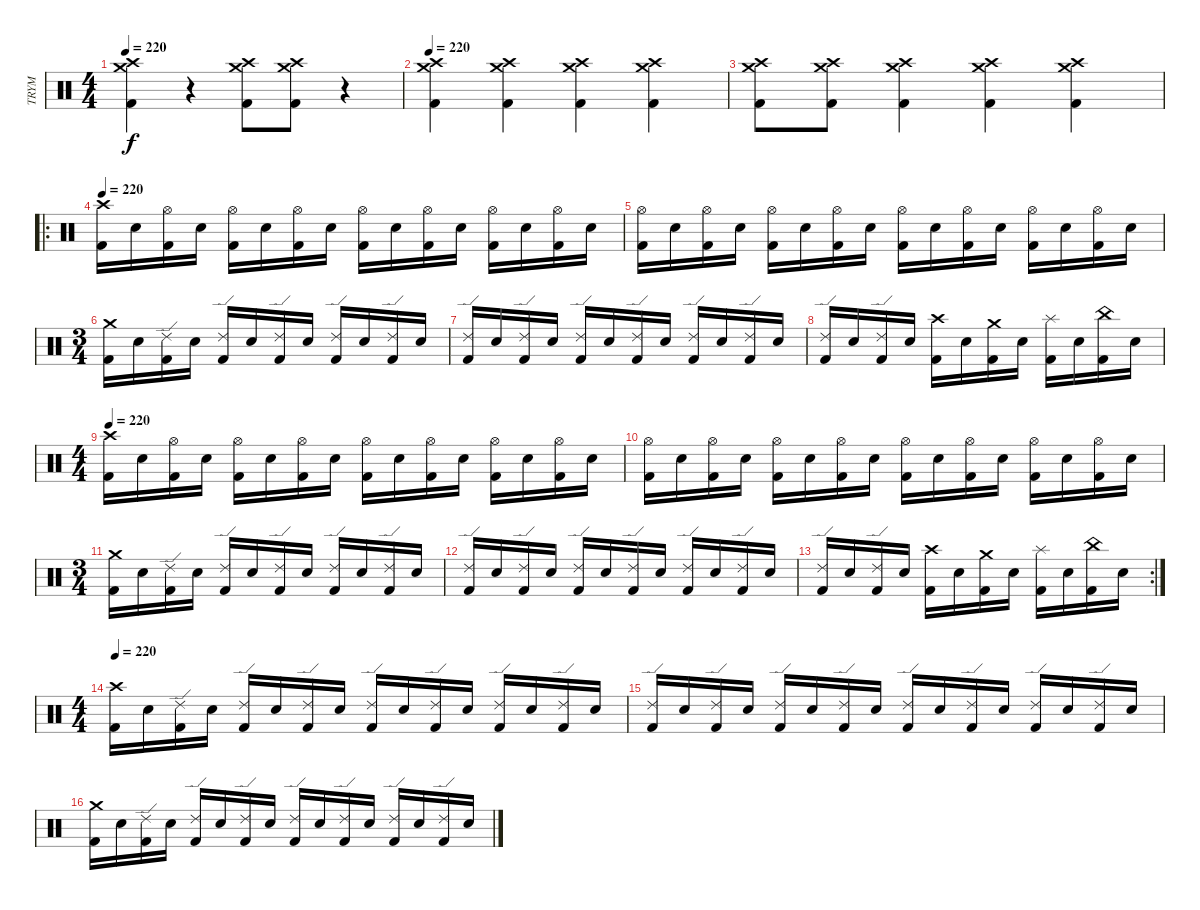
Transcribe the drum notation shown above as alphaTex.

\track ("TRYM" "TRYM") {instrument percussion}
\staff {score}
\articulation defaults
\ts (4 4)
\tempo 220
\clef neutral
\ks c
("Kick (hit) 2" "Crash medium (hit)" "Crash high (hit)").4{dy f} r.4 ("Kick (hit) 2" "Crash medium (hit)" "Crash high (hit)").8 ("Kick (hit) 2" "Crash medium (hit)" "Crash high (hit)").8 r.4 |
\tempo 220
("Kick (hit) 2" "Crash medium (hit)" "Crash high (hit)").4 ("Kick (hit) 2" "Crash medium (hit)" "Crash high (hit)").4 ("Kick (hit) 2" "Crash medium (hit)" "Crash high (hit)").4 ("Kick (hit) 2" "Crash medium (hit)" "Crash high (hit)").4 |
("Kick (hit) 2" "Crash medium (hit)" "Crash high (hit)").8 ("Kick (hit) 2" "Crash medium (hit)" "Crash high (hit)").8 ("Kick (hit) 2" "Crash medium (hit)" "Crash high (hit)").4 ("Kick (hit) 2" "Crash medium (hit)" "Crash high (hit)").4 ("Kick (hit) 2" "Crash medium (hit)" "Crash high (hit)").4 |
\ro
\tempo 220
("Kick (hit) 2" "Crash high (hit)").16 "Electric Snare (hit)".16 ("Kick (hit) 2" "Hi-Hat (open)").16 "Electric Snare (hit)".16 ("Kick (hit) 2" "Hi-Hat (open)").16 "Electric Snare (hit)".16 ("Kick (hit) 2" "Hi-Hat (open)").16 "Electric Snare (hit)".16 ("Kick (hit) 2" "Hi-Hat (open)").16 "Electric Snare (hit)".16 ("Kick (hit) 2" "Hi-Hat (open)").16 "Electric Snare (hit)".16 ("Kick (hit) 2" "Hi-Hat (open)").16 "Electric Snare (hit)".16 ("Kick (hit) 2" "Hi-Hat (open)").16 "Electric Snare (hit)".16 |
("Kick (hit) 2" "Hi-Hat (open)").16 "Electric Snare (hit)".16 ("Kick (hit) 2" "Hi-Hat (open)").16 "Electric Snare (hit)".16 ("Kick (hit) 2" "Hi-Hat (open)").16 "Electric Snare (hit)".16 ("Kick (hit) 2" "Hi-Hat (open)").16 "Electric Snare (hit)".16 ("Kick (hit) 2" "Hi-Hat (open)").16 "Electric Snare (hit)".16 ("Kick (hit) 2" "Hi-Hat (open)").16 "Electric Snare (hit)".16 ("Kick (hit) 2" "Hi-Hat (open)").16 "Electric Snare (hit)".16 ("Kick (hit) 2" "Hi-Hat (open)").16 "Electric Snare (hit)".16 |
\ts (3 4)
("Kick (hit) 2" "Crash medium (hit)").16 "Electric Snare (hit)".16 ("Kick (hit) 2" "Ride (edge) 2").16 "Electric Snare (hit)".16 ("Kick (hit) 2" "Ride (edge) 2").16 "Electric Snare (hit)".16 ("Kick (hit) 2" "Ride (edge) 2").16 "Electric Snare (hit)".16 ("Kick (hit) 2" "Ride (edge) 2").16 "Electric Snare (hit)".16 ("Kick (hit) 2" "Ride (edge) 2").16 "Electric Snare (hit)".16 |
("Kick (hit) 2" "Ride (edge) 2").16 "Electric Snare (hit)".16 ("Kick (hit) 2" "Ride (edge) 2").16 "Electric Snare (hit)".16 ("Kick (hit) 2" "Ride (edge) 2").16 "Electric Snare (hit)".16 ("Kick (hit) 2" "Ride (edge) 2").16 "Electric Snare (hit)".16 ("Kick (hit) 2" "Ride (edge) 2").16 "Electric Snare (hit)".16 ("Kick (hit) 2" "Ride (edge) 2").16 "Electric Snare (hit)".16 |
("Kick (hit) 2" "Ride (edge) 2").16 "Electric Snare (hit)".16 ("Kick (hit) 2" "Ride (edge) 2").16 "Electric Snare (hit)".16 ("Kick (hit) 2" "Crash high (hit)").16 "Electric Snare (hit)".16 ("Kick (hit) 2" "Crash medium (hit)").16 "Electric Snare (hit)".16 ("Kick (hit) 2" "Splash (hit)").16 "Electric Snare (hit)".16 ("Kick (hit) 2" "China (hit)").16 "Electric Snare (hit)".16 |
\ts (4 4)
\tempo 220
("Kick (hit) 2" "Crash high (hit)").16 "Electric Snare (hit)".16 ("Kick (hit) 2" "Hi-Hat (open)").16 "Electric Snare (hit)".16 ("Kick (hit) 2" "Hi-Hat (open)").16 "Electric Snare (hit)".16 ("Kick (hit) 2" "Hi-Hat (open)").16 "Electric Snare (hit)".16 ("Kick (hit) 2" "Hi-Hat (open)").16 "Electric Snare (hit)".16 ("Kick (hit) 2" "Hi-Hat (open)").16 "Electric Snare (hit)".16 ("Kick (hit) 2" "Hi-Hat (open)").16 "Electric Snare (hit)".16 ("Kick (hit) 2" "Hi-Hat (open)").16 "Electric Snare (hit)".16 |
("Kick (hit) 2" "Hi-Hat (open)").16 "Electric Snare (hit)".16 ("Kick (hit) 2" "Hi-Hat (open)").16 "Electric Snare (hit)".16 ("Kick (hit) 2" "Hi-Hat (open)").16 "Electric Snare (hit)".16 ("Kick (hit) 2" "Hi-Hat (open)").16 "Electric Snare (hit)".16 ("Kick (hit) 2" "Hi-Hat (open)").16 "Electric Snare (hit)".16 ("Kick (hit) 2" "Hi-Hat (open)").16 "Electric Snare (hit)".16 ("Kick (hit) 2" "Hi-Hat (open)").16 "Electric Snare (hit)".16 ("Kick (hit) 2" "Hi-Hat (open)").16 "Electric Snare (hit)".16 |
\ts (3 4)
("Kick (hit) 2" "Crash medium (hit)").16 "Electric Snare (hit)".16 ("Kick (hit) 2" "Ride (edge) 2").16 "Electric Snare (hit)".16 ("Kick (hit) 2" "Ride (edge) 2").16 "Electric Snare (hit)".16 ("Kick (hit) 2" "Ride (edge) 2").16 "Electric Snare (hit)".16 ("Kick (hit) 2" "Ride (edge) 2").16 "Electric Snare (hit)".16 ("Kick (hit) 2" "Ride (edge) 2").16 "Electric Snare (hit)".16 |
("Kick (hit) 2" "Ride (edge) 2").16 "Electric Snare (hit)".16 ("Kick (hit) 2" "Ride (edge) 2").16 "Electric Snare (hit)".16 ("Kick (hit) 2" "Ride (edge) 2").16 "Electric Snare (hit)".16 ("Kick (hit) 2" "Ride (edge) 2").16 "Electric Snare (hit)".16 ("Kick (hit) 2" "Ride (edge) 2").16 "Electric Snare (hit)".16 ("Kick (hit) 2" "Ride (edge) 2").16 "Electric Snare (hit)".16 |
\rc 2
("Kick (hit) 2" "Ride (edge) 2").16 "Electric Snare (hit)".16 ("Kick (hit) 2" "Ride (edge) 2").16 "Electric Snare (hit)".16 ("Kick (hit) 2" "Crash high (hit)").16 "Electric Snare (hit)".16 ("Kick (hit) 2" "Crash medium (hit)").16 "Electric Snare (hit)".16 ("Kick (hit) 2" "Splash (hit)").16 "Electric Snare (hit)".16 ("Kick (hit) 2" "China (hit)").16 "Electric Snare (hit)".16 |
\ts (4 4)
\tempo 220
("Kick (hit) 2" "Crash high (hit)").16 "Electric Snare (hit)".16 ("Kick (hit) 2" "Ride (edge) 2").16 "Electric Snare (hit)".16 ("Kick (hit) 2" "Ride (edge) 2").16 "Electric Snare (hit)".16 ("Kick (hit) 2" "Ride (edge) 2").16 "Electric Snare (hit)".16 ("Kick (hit) 2" "Ride (edge) 2").16 "Electric Snare (hit)".16 ("Kick (hit) 2" "Ride (edge) 2").16 "Electric Snare (hit)".16 ("Kick (hit) 2" "Ride (edge) 2").16 "Electric Snare (hit)".16 ("Kick (hit) 2" "Ride (edge) 2").16 "Electric Snare (hit)".16 |
("Kick (hit) 2" "Ride (edge) 2").16 "Electric Snare (hit)".16 ("Kick (hit) 2" "Ride (edge) 2").16 "Electric Snare (hit)".16 ("Kick (hit) 2" "Ride (edge) 2").16 "Electric Snare (hit)".16 ("Kick (hit) 2" "Ride (edge) 2").16 "Electric Snare (hit)".16 ("Kick (hit) 2" "Ride (edge) 2").16 "Electric Snare (hit)".16 ("Kick (hit) 2" "Ride (edge) 2").16 "Electric Snare (hit)".16 ("Kick (hit) 2" "Ride (edge) 2").16 "Electric Snare (hit)".16 ("Kick (hit) 2" "Ride (edge) 2").16 "Electric Snare (hit)".16 |
("Kick (hit) 2" "Crash medium (hit)").16 "Electric Snare (hit)".16 ("Kick (hit) 2" "Ride (edge) 2").16 "Electric Snare (hit)".16 ("Kick (hit) 2" "Ride (edge) 2").16 "Electric Snare (hit)".16 ("Kick (hit) 2" "Ride (edge) 2").16 "Electric Snare (hit)".16 ("Kick (hit) 2" "Ride (edge) 2").16 "Electric Snare (hit)".16 ("Kick (hit) 2" "Ride (edge) 2").16 "Electric Snare (hit)".16 ("Kick (hit) 2" "Ride (edge) 2").16 "Electric Snare (hit)".16 ("Kick (hit) 2" "Ride (edge) 2").16 "Electric Snare (hit)".16
